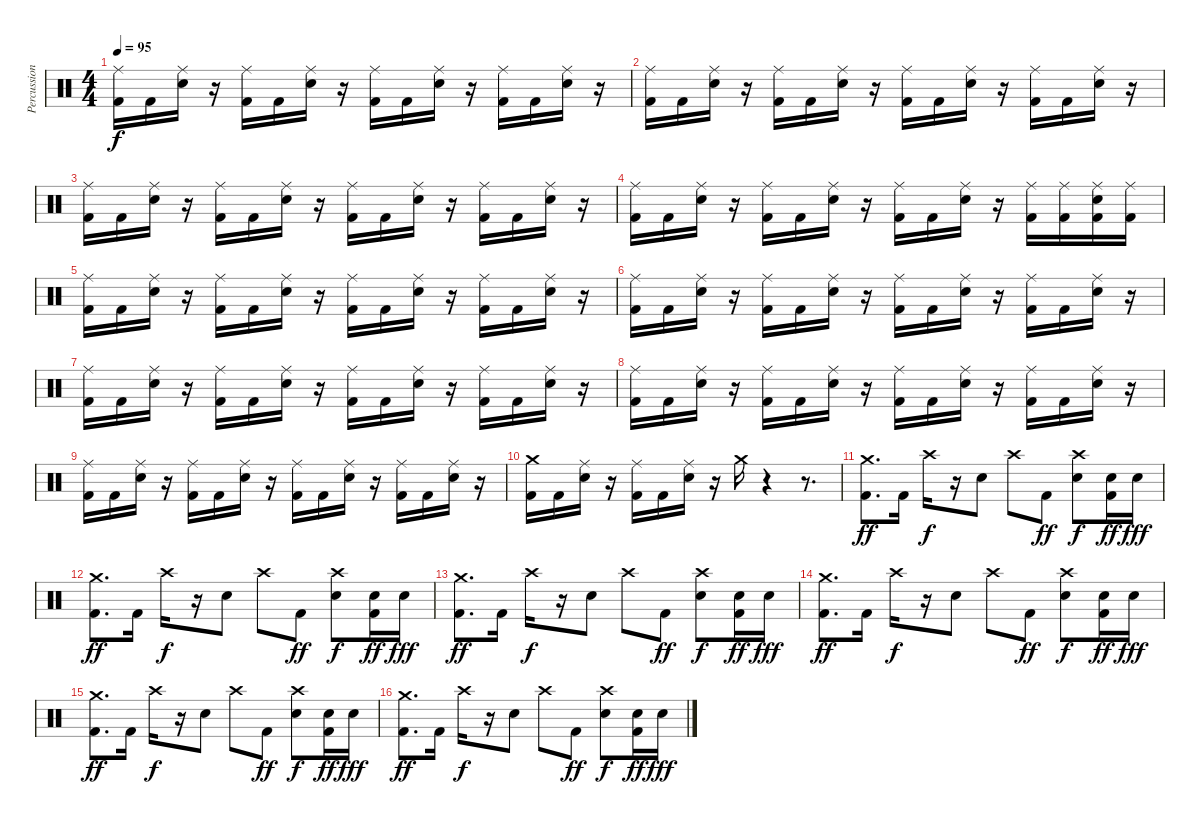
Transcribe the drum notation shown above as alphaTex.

\track ("Percussion" "Percussion") {instrument percussion}
\staff {score}
\articulation defaults
\ts (4 4)
\tempo 95
\clef neutral
\ks c
("Ride (middle)" "Kick (hit) 2").16{dy f} "Kick (hit) 2".16 ("Ride (middle)" "Electric Snare (hit)").16 r.16 ("Ride (middle)" "Kick (hit) 2").16 "Kick (hit) 2".16 ("Ride (middle)" "Electric Snare (hit)").16 r.16 ("Ride (middle)" "Kick (hit) 2").16 "Kick (hit) 2".16 ("Ride (middle)" "Electric Snare (hit)").16 r.16 ("Ride (middle)" "Kick (hit) 2").16 "Kick (hit) 2".16 ("Ride (middle)" "Electric Snare (hit)").16 r.16 |
("Ride (middle)" "Kick (hit) 2").16 "Kick (hit) 2".16 ("Ride (middle)" "Electric Snare (hit)").16 r.16 ("Ride (middle)" "Kick (hit) 2").16 "Kick (hit) 2".16 ("Ride (middle)" "Electric Snare (hit)").16 r.16 ("Ride (middle)" "Kick (hit) 2").16 "Kick (hit) 2".16 ("Ride (middle)" "Electric Snare (hit)").16 r.16 ("Ride (middle)" "Kick (hit) 2").16 "Kick (hit) 2".16 ("Ride (middle)" "Electric Snare (hit)").16 r.16 |
("Ride (middle)" "Kick (hit) 2").16 "Kick (hit) 2".16 ("Ride (middle)" "Electric Snare (hit)").16 r.16 ("Ride (middle)" "Kick (hit) 2").16 "Kick (hit) 2".16 ("Ride (middle)" "Electric Snare (hit)").16 r.16 ("Ride (middle)" "Kick (hit) 2").16 "Kick (hit) 2".16 ("Ride (middle)" "Electric Snare (hit)").16 r.16 ("Ride (middle)" "Kick (hit) 2").16 "Kick (hit) 2".16 ("Ride (middle)" "Electric Snare (hit)").16 r.16 |
("Ride (middle)" "Kick (hit) 2").16 "Kick (hit) 2".16 ("Ride (middle)" "Electric Snare (hit)").16 r.16 ("Ride (middle)" "Kick (hit) 2").16 "Kick (hit) 2".16 ("Ride (middle)" "Electric Snare (hit)").16 r.16 ("Ride (middle)" "Kick (hit) 2").16 "Kick (hit) 2".16 ("Ride (middle)" "Electric Snare (hit)").16 r.16 ("Ride (middle)" "Kick (hit) 2").16 ("Ride (middle)" "Kick (hit) 2").16 ("Ride (middle)" "Electric Snare (hit)" "Kick (hit) 2").16 ("Ride (middle)" "Kick (hit) 2").16 |
("Ride (middle)" "Kick (hit) 2").16 "Kick (hit) 2".16 ("Ride (middle)" "Electric Snare (hit)").16 r.16 ("Ride (middle)" "Kick (hit) 2").16 "Kick (hit) 2".16 ("Ride (middle)" "Electric Snare (hit)").16 r.16 ("Ride (middle)" "Kick (hit) 2").16 "Kick (hit) 2".16 ("Ride (middle)" "Electric Snare (hit)").16 r.16 ("Ride (middle)" "Kick (hit) 2").16 "Kick (hit) 2".16 ("Ride (middle)" "Electric Snare (hit)").16 r.16 |
("Ride (middle)" "Kick (hit) 2").16 "Kick (hit) 2".16 ("Ride (middle)" "Electric Snare (hit)").16 r.16 ("Ride (middle)" "Kick (hit) 2").16 "Kick (hit) 2".16 ("Ride (middle)" "Electric Snare (hit)").16 r.16 ("Ride (middle)" "Kick (hit) 2").16 "Kick (hit) 2".16 ("Ride (middle)" "Electric Snare (hit)").16 r.16 ("Ride (middle)" "Kick (hit) 2").16 "Kick (hit) 2".16 ("Ride (middle)" "Electric Snare (hit)").16 r.16 |
("Ride (middle)" "Kick (hit) 2").16 "Kick (hit) 2".16 ("Ride (middle)" "Electric Snare (hit)").16 r.16 ("Ride (middle)" "Kick (hit) 2").16 "Kick (hit) 2".16 ("Ride (middle)" "Electric Snare (hit)").16 r.16 ("Ride (middle)" "Kick (hit) 2").16 "Kick (hit) 2".16 ("Ride (middle)" "Electric Snare (hit)").16 r.16 ("Ride (middle)" "Kick (hit) 2").16 "Kick (hit) 2".16 ("Ride (middle)" "Electric Snare (hit)").16 r.16 |
("Ride (middle)" "Kick (hit) 2").16 "Kick (hit) 2".16 ("Ride (middle)" "Electric Snare (hit)").16 r.16 ("Ride (middle)" "Kick (hit) 2").16 "Kick (hit) 2".16 ("Ride (middle)" "Electric Snare (hit)").16 r.16 ("Ride (middle)" "Kick (hit) 2").16 "Kick (hit) 2".16 ("Ride (middle)" "Electric Snare (hit)").16 r.16 ("Ride (middle)" "Kick (hit) 2").16 "Kick (hit) 2".16 ("Ride (middle)" "Electric Snare (hit)").16 r.16 |
("Ride (middle)" "Kick (hit) 2").16 "Kick (hit) 2".16 ("Ride (middle)" "Electric Snare (hit)").16 r.16 ("Ride (middle)" "Kick (hit) 2").16 "Kick (hit) 2".16 ("Ride (middle)" "Electric Snare (hit)").16 r.16 ("Ride (middle)" "Kick (hit) 2").16 "Kick (hit) 2".16 ("Ride (middle)" "Electric Snare (hit)").16 r.16 ("Ride (middle)" "Kick (hit) 2").16 "Kick (hit) 2".16 ("Ride (middle)" "Electric Snare (hit)").16 r.16 |
("Crash medium (hit)" "Kick (hit) 2").16 "Kick (hit) 2".16 ("Ride (middle)" "Electric Snare (hit)").16 r.16 ("Ride (middle)" "Kick (hit) 2").16 "Kick (hit) 2".16 ("Ride (middle)" "Electric Snare (hit)").16 r.16 "Crash medium (hit)".16 r.4 r.8{d} |
("Crash medium (hit)" "Kick (hit) 2").8{d dy ff} "Kick (hit) 2".16 "Crash high (hit)".16{dy f} r.16 "Electric Snare (hit)".8 "Crash high (hit)".8 "Kick (hit) 2".8{dy ff} ("Crash high (hit)" "Electric Snare (hit)").8{dy f} ("Electric Snare (hit)" "Kick (hit) 2").16{dy ff} "Electric Snare (hit)".16{dy fff} |
("Crash medium (hit)" "Kick (hit) 2").8{d dy ff} "Kick (hit) 2".16 "Crash high (hit)".16{dy f} r.16 "Electric Snare (hit)".8 "Crash high (hit)".8 "Kick (hit) 2".8{dy ff} ("Crash high (hit)" "Electric Snare (hit)").8{dy f} ("Electric Snare (hit)" "Kick (hit) 2").16{dy ff} "Electric Snare (hit)".16{dy fff} |
("Crash medium (hit)" "Kick (hit) 2").8{d dy ff} "Kick (hit) 2".16 "Crash high (hit)".16{dy f} r.16 "Electric Snare (hit)".8 "Crash high (hit)".8 "Kick (hit) 2".8{dy ff} ("Crash high (hit)" "Electric Snare (hit)").8{dy f} ("Electric Snare (hit)" "Kick (hit) 2").16{dy ff} "Electric Snare (hit)".16{dy fff} |
("Crash medium (hit)" "Kick (hit) 2").8{d dy ff} "Kick (hit) 2".16 "Crash high (hit)".16{dy f} r.16 "Electric Snare (hit)".8 "Crash high (hit)".8 "Kick (hit) 2".8{dy ff} ("Crash high (hit)" "Electric Snare (hit)").8{dy f} ("Electric Snare (hit)" "Kick (hit) 2").16{dy ff} "Electric Snare (hit)".16{dy fff} |
("Crash medium (hit)" "Kick (hit) 2").8{d dy ff} "Kick (hit) 2".16 "Crash high (hit)".16{dy f} r.16 "Electric Snare (hit)".8 "Crash high (hit)".8 "Kick (hit) 2".8{dy ff} ("Crash high (hit)" "Electric Snare (hit)").8{dy f} ("Electric Snare (hit)" "Kick (hit) 2").16{dy ff} "Electric Snare (hit)".16{dy fff} |
("Crash medium (hit)" "Kick (hit) 2").8{d dy ff} "Kick (hit) 2".16 "Crash high (hit)".16{dy f} r.16 "Electric Snare (hit)".8 "Crash high (hit)".8 "Kick (hit) 2".8{dy ff} ("Crash high (hit)" "Electric Snare (hit)").8{dy f} ("Electric Snare (hit)" "Kick (hit) 2").16{dy ff} "Electric Snare (hit)".16{dy fff}
